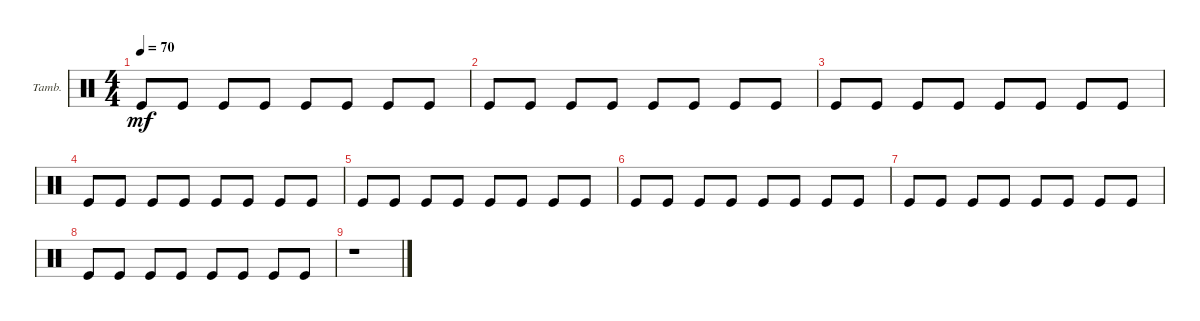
\defaultSystemsLayout 4
\bracketExtendMode groupsimilarinstruments
\firstSystemTrackNameOrientation horizontal
\otherSystemsTrackNameOrientation horizontal
\track ("Tambourine" "Tamb.") {multiBarRest instrument percussion}
\staff {score}
\articulation defaults
\ts (4 4)
\tempo 70
\clef neutral
\ks c "Kick (hit)".8{dy mf} "Kick (hit)".8 "Kick (hit)".8 "Kick (hit)".8 "Kick (hit)".8 "Kick (hit)".8 "Kick (hit)".8 "Kick (hit)".8
|
"Kick (hit)".8 "Kick (hit)".8 "Kick (hit)".8 "Kick (hit)".8 "Kick (hit)".8 "Kick (hit)".8 "Kick (hit)".8 "Kick (hit)".8 |
"Kick (hit)".8 "Kick (hit)".8 "Kick (hit)".8 "Kick (hit)".8 "Kick (hit)".8 "Kick (hit)".8 "Kick (hit)".8 "Kick (hit)".8 |
"Kick (hit)".8 "Kick (hit)".8 "Kick (hit)".8 "Kick (hit)".8 "Kick (hit)".8 "Kick (hit)".8 "Kick (hit)".8 "Kick (hit)".8 |
"Kick (hit)".8 "Kick (hit)".8 "Kick (hit)".8 "Kick (hit)".8 "Kick (hit)".8 "Kick (hit)".8 "Kick (hit)".8 "Kick (hit)".8 |
"Kick (hit)".8 "Kick (hit)".8 "Kick (hit)".8 "Kick (hit)".8 "Kick (hit)".8 "Kick (hit)".8 "Kick (hit)".8 "Kick (hit)".8 |
"Kick (hit)".8 "Kick (hit)".8 "Kick (hit)".8 "Kick (hit)".8 "Kick (hit)".8 "Kick (hit)".8 "Kick (hit)".8 "Kick (hit)".8 |
"Kick (hit)".8 "Kick (hit)".8 "Kick (hit)".8 "Kick (hit)".8 "Kick (hit)".8 "Kick (hit)".8 "Kick (hit)".8 "Kick (hit)".8 |
r.1
